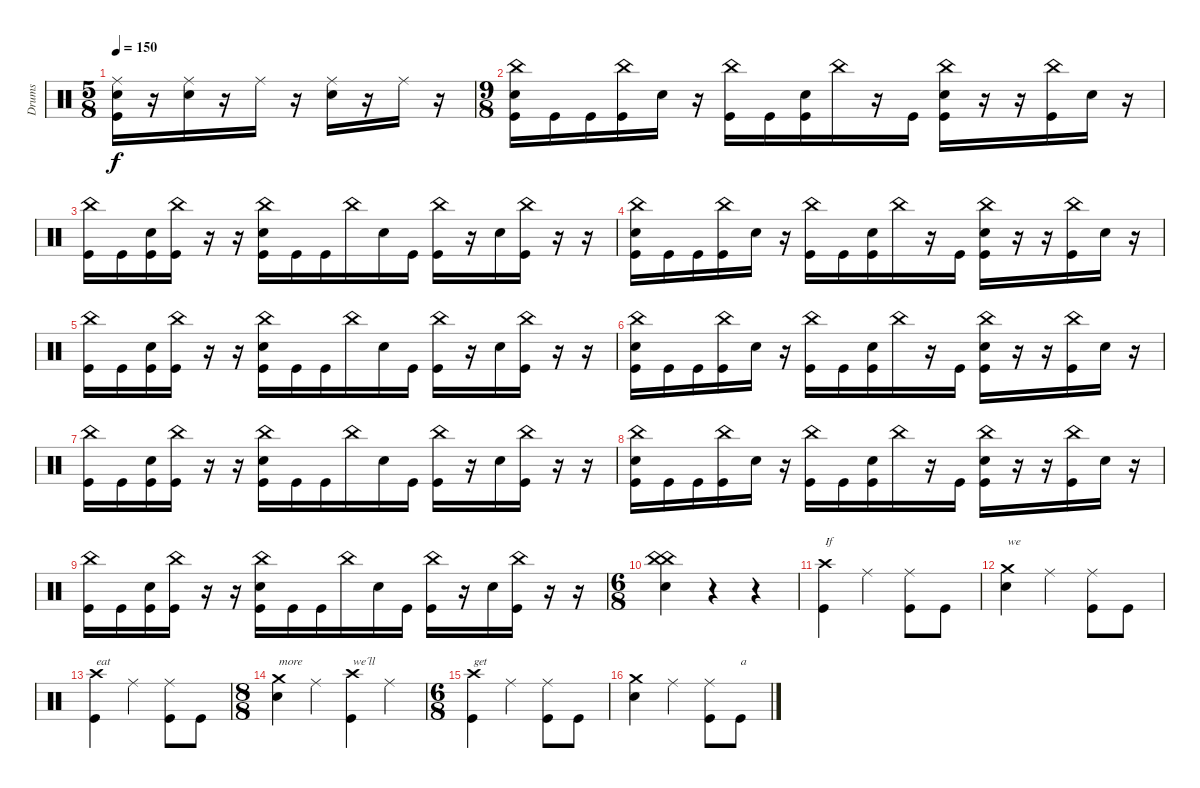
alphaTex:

\track ("Drums" "Drums") {instrument percussion}
\staff {score}
\articulation defaults
\ts (5 8)
\tempo 150
\clef neutral
\ks c
("Snare (hit)" "Ride (middle)" "Kick (hit)").16{dy f} r.16 ("Ride (middle)" "Snare (hit) 2").16 r.16 "Ride (middle)".16 r.16 ("Ride (middle)" "Snare (hit) 2").16 r.16 "Ride (middle)".16 r.16 |
\ts (9 8)
("China (hit)" "Snare (hit) 2" "Kick (hit)").16 "Kick (hit)".16 "Kick (hit)".16 ("China (hit)" "Kick (hit)").16 "Snare (hit) 2".16 r.16 ("China (hit)" "Kick (hit)").16 "Kick (hit)".16 ("Snare (hit) 2" "Kick (hit)").16 "China (hit)".16 r.16 "Kick (hit)".16 ("China (hit)" "Snare (hit) 2" "Kick (hit)").16 r.16 r.16 ("China (hit)" "Kick (hit)").16 "Snare (hit) 2".16 r.16 |
("China (hit)" "Kick (hit)").16 "Kick (hit)".16 ("Snare (hit) 2" "Kick (hit)").16 ("China (hit)" "Kick (hit)").16 r.16 r.16 ("China (hit)" "Snare (hit) 2" "Kick (hit)").16 "Kick (hit)".16 "Kick (hit)".16 "China (hit)".16 "Snare (hit) 2".16 "Kick (hit)".16 ("China (hit)" "Kick (hit)").16 r.16 "Snare (hit) 2".16 ("China (hit)" "Kick (hit)").16 r.16 r.16 |
("China (hit)" "Snare (hit) 2" "Kick (hit)").16 "Kick (hit)".16 "Kick (hit)".16 ("China (hit)" "Kick (hit)").16 "Snare (hit) 2".16 r.16 ("China (hit)" "Kick (hit)").16 "Kick (hit)".16 ("Snare (hit) 2" "Kick (hit)").16 "China (hit)".16 r.16 "Kick (hit)".16 ("China (hit)" "Snare (hit) 2" "Kick (hit)").16 r.16 r.16 ("China (hit)" "Kick (hit)").16 "Snare (hit) 2".16 r.16 |
("China (hit)" "Kick (hit)").16 "Kick (hit)".16 ("Snare (hit) 2" "Kick (hit)").16 ("China (hit)" "Kick (hit)").16 r.16 r.16 ("China (hit)" "Snare (hit) 2" "Kick (hit)").16 "Kick (hit)".16 "Kick (hit)".16 "China (hit)".16 "Snare (hit) 2".16 "Kick (hit)".16 ("China (hit)" "Kick (hit)").16 r.16 "Snare (hit) 2".16 ("China (hit)" "Kick (hit)").16 r.16 r.16 |
("China (hit)" "Snare (hit) 2" "Kick (hit)").16 "Kick (hit)".16 "Kick (hit)".16 ("China (hit)" "Kick (hit)").16 "Snare (hit) 2".16 r.16 ("China (hit)" "Kick (hit)").16 "Kick (hit)".16 ("Snare (hit) 2" "Kick (hit)").16 "China (hit)".16 r.16 "Kick (hit)".16 ("China (hit)" "Snare (hit) 2" "Kick (hit)").16 r.16 r.16 ("China (hit)" "Kick (hit)").16 "Snare (hit) 2".16 r.16 |
("China (hit)" "Kick (hit)").16 "Kick (hit)".16 ("Snare (hit) 2" "Kick (hit)").16 ("China (hit)" "Kick (hit)").16 r.16 r.16 ("China (hit)" "Snare (hit) 2" "Kick (hit)").16 "Kick (hit)".16 "Kick (hit)".16 "China (hit)".16 "Snare (hit) 2".16 "Kick (hit)".16 ("China (hit)" "Kick (hit)").16 r.16 "Snare (hit) 2".16 ("China (hit)" "Kick (hit)").16 r.16 r.16 |
("China (hit)" "Snare (hit) 2" "Kick (hit)").16 "Kick (hit)".16 "Kick (hit)".16 ("China (hit)" "Kick (hit)").16 "Snare (hit) 2".16 r.16 ("China (hit)" "Kick (hit)").16 "Kick (hit)".16 ("Snare (hit) 2" "Kick (hit)").16 "China (hit)".16 r.16 "Kick (hit)".16 ("China (hit)" "Snare (hit) 2" "Kick (hit)").16 r.16 r.16 ("China (hit)" "Kick (hit)").16 "Snare (hit) 2".16 r.16 |
("China (hit)" "Kick (hit)").16 "Kick (hit)".16 ("Snare (hit) 2" "Kick (hit)").16 ("China (hit)" "Kick (hit)").16 r.16 r.16 ("China (hit)" "Snare (hit) 2" "Kick (hit)").16 "Kick (hit)".16 "Kick (hit)".16 "China (hit)".16 "Snare (hit) 2".16 "Kick (hit)".16 ("China (hit)" "Kick (hit)").16 r.16 "Snare (hit) 2".16 ("China (hit)" "Kick (hit)").16 r.16 r.16 |
\ts (6 8)
("China (hit)" "Snare (hit) 2" "China (hit)").4 r.4 r.4 |
("Crash high (hit)" "Kick (hit)").4{txt "If"} "Ride (middle)".4 ("Ride (middle)" "Kick (hit)").8 "Kick (hit)".8 |
("Crash medium (hit)" "Snare (hit) 2").4{txt "we"} "Ride (middle)".4 ("Ride (middle)" "Kick (hit)").8 "Kick (hit)".8 |
("Crash high (hit)" "Kick (hit)").4{txt "eat"} "Ride (middle)".4 ("Ride (middle)" "Kick (hit)").8 "Kick (hit)".8 |
\ts (8 8)
("Crash medium (hit)" "Snare (hit) 2").4{txt "more"} "Ride (middle)".4 ("Crash high (hit)" "Kick (hit)").4{txt "we´ll"} "Ride (middle)".4 |
\ts (6 8)
("Crash high (hit)" "Kick (hit)").4{txt "get"} "Ride (middle)".4 ("Ride (middle)" "Kick (hit)").8 "Kick (hit)".8 |
("Crash medium (hit)" "Snare (hit) 2").4 "Ride (middle)".4 ("Ride (middle)" "Kick (hit)").8 "Kick (hit)".8{txt "a"}
